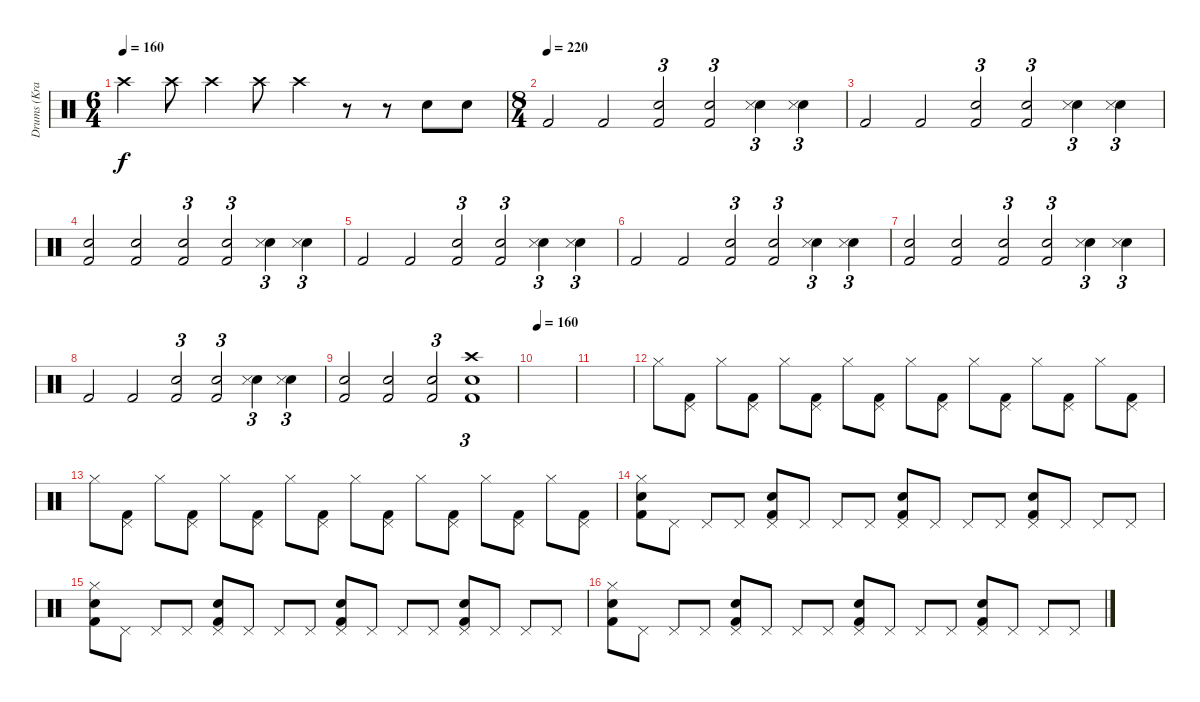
\track ("Drums (Kram)" "Drums (Kra") {instrument percussion}
\staff {score}
\articulation defaults
\ts (6 4)
\tempo 160
\clef neutral
\ks c "Crash high (hit)".4{dy f} "Crash high (hit)".8 "Crash high (hit)".4 "Crash high (hit)".8 "Crash high (hit)".4
r.8 r.8 "Electric Snare (hit)".8 "Electric Snare (hit)".8 |
\ts (8 4)
\tempo (220)
"Kick (hit) 2".2 "Kick (hit) 2".2 ("Electric Snare (hit)" "Kick (hit) 2").2{tu (3 2)} ("Electric Snare (hit)" "Kick (hit) 2").2{tu (3 2)} ("Electric Snare (hit)" "Snare (side stick) 3").4{tu (3 2)} ("Electric Snare (hit)" "Snare (side stick) 3").4{tu (3 2)} |
"Kick (hit) 2".2 "Kick (hit) 2".2 ("Electric Snare (hit)" "Kick (hit) 2").2{tu (3 2)} ("Electric Snare (hit)" "Kick (hit) 2").2{tu (3 2)} ("Electric Snare (hit)" "Snare (side stick) 3").4{tu (3 2)} ("Electric Snare (hit)" "Snare (side stick) 3").4{tu (3 2)} |
("Electric Snare (hit)" "Kick (hit) 2").2 ("Electric Snare (hit)" "Kick (hit) 2").2 ("Electric Snare (hit)" "Kick (hit) 2").2{tu (3 2)} ("Electric Snare (hit)" "Kick (hit) 2").2{tu (3 2)} ("Electric Snare (hit)" "Snare (side stick) 3").4{tu (3 2)} ("Electric Snare (hit)" "Snare (side stick) 3").4{tu (3 2)} |
"Kick (hit) 2".2 "Kick (hit) 2".2 ("Electric Snare (hit)" "Kick (hit) 2").2{tu (3 2)} ("Electric Snare (hit)" "Kick (hit) 2").2{tu (3 2)} ("Electric Snare (hit)" "Snare (side stick) 3").4{tu (3 2)} ("Electric Snare (hit)" "Snare (side stick) 3").4{tu (3 2)} |
"Kick (hit) 2".2 "Kick (hit) 2".2 ("Electric Snare (hit)" "Kick (hit) 2").2{tu (3 2)} ("Electric Snare (hit)" "Kick (hit) 2").2{tu (3 2)} ("Electric Snare (hit)" "Snare (side stick) 3").4{tu (3 2)} ("Electric Snare (hit)" "Snare (side stick) 3").4{tu (3 2)} |
("Electric Snare (hit)" "Kick (hit) 2").2 ("Electric Snare (hit)" "Kick (hit) 2").2 ("Electric Snare (hit)" "Kick (hit) 2").2{tu (3 2)} ("Electric Snare (hit)" "Kick (hit) 2").2{tu (3 2)} ("Electric Snare (hit)" "Snare (side stick) 3").4{tu (3 2)} ("Electric Snare (hit)" "Snare (side stick) 3").4{tu (3 2)} |
"Kick (hit) 2".2 "Kick (hit) 2".2 ("Electric Snare (hit)" "Kick (hit) 2").2{tu (3 2)} ("Electric Snare (hit)" "Kick (hit) 2").2{tu (3 2)} ("Electric Snare (hit)" "Snare (side stick) 3").4{tu (3 2)} ("Electric Snare (hit)" "Snare (side stick) 3").4{tu (3 2)} |
("Electric Snare (hit)" "Kick (hit) 2").2 ("Electric Snare (hit)" "Kick (hit) 2").2 ("Electric Snare (hit)" "Kick (hit) 2").2{tu (3 2)} ("Crash high (hit)" "Electric Snare (hit)" "Kick (hit) 2").1{tu (3 2)} |
\tempo 160
|
|
"Hi-Hat (closed)".8{volume 1} ("Kick (hit) 2" "Pedal Hi-Hat (hit)").8 "Hi-Hat (closed)".8 ("Kick (hit) 2" "Pedal Hi-Hat (hit)").8 "Hi-Hat (closed)".8 ("Kick (hit) 2" "Pedal Hi-Hat (hit)").8 "Hi-Hat (closed)".8 ("Kick (hit) 2" "Pedal Hi-Hat (hit)").8{volume 2} "Hi-Hat (closed)".8 ("Kick (hit) 2" "Pedal Hi-Hat (hit)").8 "Hi-Hat (closed)".8 ("Kick (hit) 2" "Pedal Hi-Hat (hit)").8 "Hi-Hat (closed)".8 ("Kick (hit) 2" "Pedal Hi-Hat (hit)").8 "Hi-Hat (closed)".8 ("Kick (hit) 2" "Pedal Hi-Hat (hit)").8 |
"Hi-Hat (closed)".8{volume 4} ("Kick (hit) 2" "Pedal Hi-Hat (hit)").8 "Hi-Hat (closed)".8 ("Kick (hit) 2" "Pedal Hi-Hat (hit)").8 "Hi-Hat (closed)".8 ("Kick (hit) 2" "Pedal Hi-Hat (hit)").8 "Hi-Hat (closed)".8 ("Kick (hit) 2" "Pedal Hi-Hat (hit)").8 "Hi-Hat (closed)".8{volume 6} ("Kick (hit) 2" "Pedal Hi-Hat (hit)").8 "Hi-Hat (closed)".8 ("Kick (hit) 2" "Pedal Hi-Hat (hit)").8 "Hi-Hat (closed)".8 ("Kick (hit) 2" "Pedal Hi-Hat (hit)").8 "Hi-Hat (closed)".8 ("Kick (hit) 2" "Pedal Hi-Hat (hit)").8 |
("Kick (hit) 2" "Electric Snare (hit)" "Hi-Hat (closed)").8{volume 8} "Pedal Hi-Hat (hit)".8 "Pedal Hi-Hat (hit)".8 "Pedal Hi-Hat (hit)".8 ("Electric Snare (hit)" "Kick (hit) 2" "Pedal Hi-Hat (hit)").8 "Pedal Hi-Hat (hit)".8 "Pedal Hi-Hat (hit)".8 "Pedal Hi-Hat (hit)".8 ("Electric Snare (hit)" "Kick (hit) 2" "Pedal Hi-Hat (hit)").8 "Pedal Hi-Hat (hit)".8 "Pedal Hi-Hat (hit)".8 "Pedal Hi-Hat (hit)".8 ("Electric Snare (hit)" "Kick (hit) 2" "Pedal Hi-Hat (hit)").8 "Pedal Hi-Hat (hit)".8 "Pedal Hi-Hat (hit)".8 "Pedal Hi-Hat (hit)".8 |
("Kick (hit) 2" "Electric Snare (hit)" "Hi-Hat (closed)").8 "Pedal Hi-Hat (hit)".8 "Pedal Hi-Hat (hit)".8 "Pedal Hi-Hat (hit)".8 ("Electric Snare (hit)" "Kick (hit) 2" "Pedal Hi-Hat (hit)").8 "Pedal Hi-Hat (hit)".8 "Pedal Hi-Hat (hit)".8 "Pedal Hi-Hat (hit)".8 ("Electric Snare (hit)" "Kick (hit) 2" "Pedal Hi-Hat (hit)").8 "Pedal Hi-Hat (hit)".8 "Pedal Hi-Hat (hit)".8 "Pedal Hi-Hat (hit)".8 ("Electric Snare (hit)" "Kick (hit) 2" "Pedal Hi-Hat (hit)").8 "Pedal Hi-Hat (hit)".8 "Pedal Hi-Hat (hit)".8 "Pedal Hi-Hat (hit)".8 |
("Kick (hit) 2" "Electric Snare (hit)" "Hi-Hat (closed)").8 "Pedal Hi-Hat (hit)".8 "Pedal Hi-Hat (hit)".8 "Pedal Hi-Hat (hit)".8 ("Electric Snare (hit)" "Kick (hit) 2" "Pedal Hi-Hat (hit)").8 "Pedal Hi-Hat (hit)".8 "Pedal Hi-Hat (hit)".8 "Pedal Hi-Hat (hit)".8 ("Electric Snare (hit)" "Kick (hit) 2" "Pedal Hi-Hat (hit)").8 "Pedal Hi-Hat (hit)".8 "Pedal Hi-Hat (hit)".8 "Pedal Hi-Hat (hit)".8 ("Electric Snare (hit)" "Kick (hit) 2" "Pedal Hi-Hat (hit)").8 "Pedal Hi-Hat (hit)".8 "Pedal Hi-Hat (hit)".8 "Pedal Hi-Hat (hit)".8
